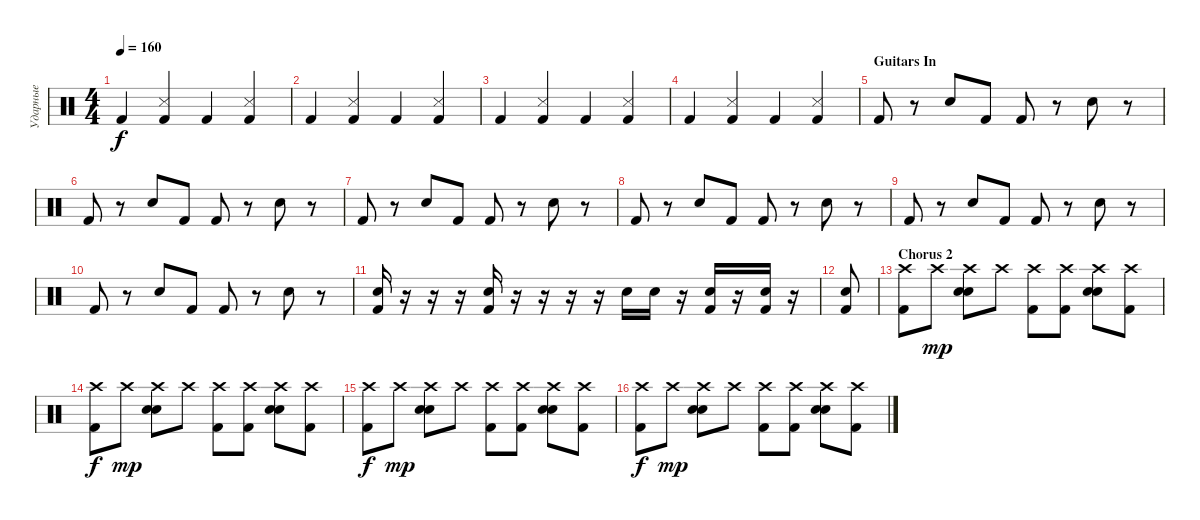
\track ("Ударные" "Ударные") {instrument percussion}
\staff {score}
\articulation defaults
\ts (4 4)
\tempo 160
\clef neutral
\ks c "Kick (hit) 2".4{dy f}
("Snare (side stick) 3" "Kick (hit) 2").4 "Kick (hit) 2".4 ("Snare (side stick) 3" "Kick (hit) 2").4 |
"Kick (hit) 2".4 ("Snare (side stick) 3" "Kick (hit) 2").4 "Kick (hit) 2".4 ("Snare (side stick) 3" "Kick (hit) 2").4 |
"Kick (hit) 2".4 ("Snare (side stick) 3" "Kick (hit) 2").4 "Kick (hit) 2".4 ("Snare (side stick) 3" "Kick (hit) 2").4 |
"Kick (hit) 2".4 ("Snare (side stick) 3" "Kick (hit) 2").4 "Kick (hit) 2".4 ("Snare (side stick) 3" "Kick (hit) 2").4 |
\section ("" "Guitars In")
"Kick (hit) 2".8 r.8 "Electric Snare (hit)".8 "Kick (hit) 2".8 "Kick (hit) 2".8 r.8 "Electric Snare (hit)".8 r.8 |
"Kick (hit) 2".8 r.8 "Electric Snare (hit)".8 "Kick (hit) 2".8 "Kick (hit) 2".8 r.8 "Electric Snare (hit)".8 r.8 |
"Kick (hit) 2".8 r.8 "Electric Snare (hit)".8 "Kick (hit) 2".8 "Kick (hit) 2".8 r.8 "Electric Snare (hit)".8 r.8 |
"Kick (hit) 2".8 r.8 "Electric Snare (hit)".8 "Kick (hit) 2".8 "Kick (hit) 2".8 r.8 "Electric Snare (hit)".8 r.8 |
"Kick (hit) 2".8 r.8 "Electric Snare (hit)".8 "Kick (hit) 2".8 "Kick (hit) 2".8 r.8 "Electric Snare (hit)".8 r.8 |
"Kick (hit) 2".8 r.8 "Electric Snare (hit)".8 "Kick (hit) 2".8 "Kick (hit) 2".8 r.8 "Electric Snare (hit)".8 r.8 |
("Kick (hit) 2" "Electric Snare (hit)").16 r.16 r.16 r.16 ("Kick (hit) 2" "Electric Snare (hit)").16 r.16 r.16 r.16 r.16 "Electric Snare (hit)".16 "Electric Snare (hit)".16 r.16 ("Kick (hit) 2" "Electric Snare (hit)").16 r.16 ("Kick (hit) 2" "Electric Snare (hit)").16 r.16 |
("Kick (hit) 2" "Electric Snare (hit)").8 |
\section ("" "Chorus 2")
("Crash high (hit)" "Kick (hit) 2").8 "Crash high (hit)".8{dy mp} ("Crash high (hit)" "Electric Snare (hit)" "Electric Snare (hit)").8 "Crash high (hit)".8 ("Crash high (hit)" "Kick (hit) 2").8 ("Crash high (hit)" "Kick (hit) 2").8 ("Crash high (hit)" "Electric Snare (hit)" "Electric Snare (hit)").8 ("Crash high (hit)" "Kick (hit) 2").8 |
("Crash high (hit)" "Kick (hit) 2").8{dy f} "Crash high (hit)".8{dy mp} ("Crash high (hit)" "Electric Snare (hit)" "Electric Snare (hit)").8 "Crash high (hit)".8 ("Crash high (hit)" "Kick (hit) 2").8 ("Crash high (hit)" "Kick (hit) 2").8 ("Crash high (hit)" "Electric Snare (hit)" "Electric Snare (hit)").8 ("Crash high (hit)" "Kick (hit) 2").8 |
("Crash high (hit)" "Kick (hit) 2").8{dy f} "Crash high (hit)".8{dy mp} ("Crash high (hit)" "Electric Snare (hit)" "Electric Snare (hit)").8 "Crash high (hit)".8 ("Crash high (hit)" "Kick (hit) 2").8 ("Crash high (hit)" "Kick (hit) 2").8 ("Crash high (hit)" "Electric Snare (hit)" "Electric Snare (hit)").8 ("Crash high (hit)" "Kick (hit) 2").8 |
("Crash high (hit)" "Kick (hit) 2").8{dy f} "Crash high (hit)".8{dy mp} ("Crash high (hit)" "Electric Snare (hit)" "Electric Snare (hit)").8 "Crash high (hit)".8 ("Crash high (hit)" "Kick (hit) 2").8 ("Crash high (hit)" "Kick (hit) 2").8 ("Crash high (hit)" "Electric Snare (hit)" "Electric Snare (hit)").8 ("Crash high (hit)" "Kick (hit) 2").8
